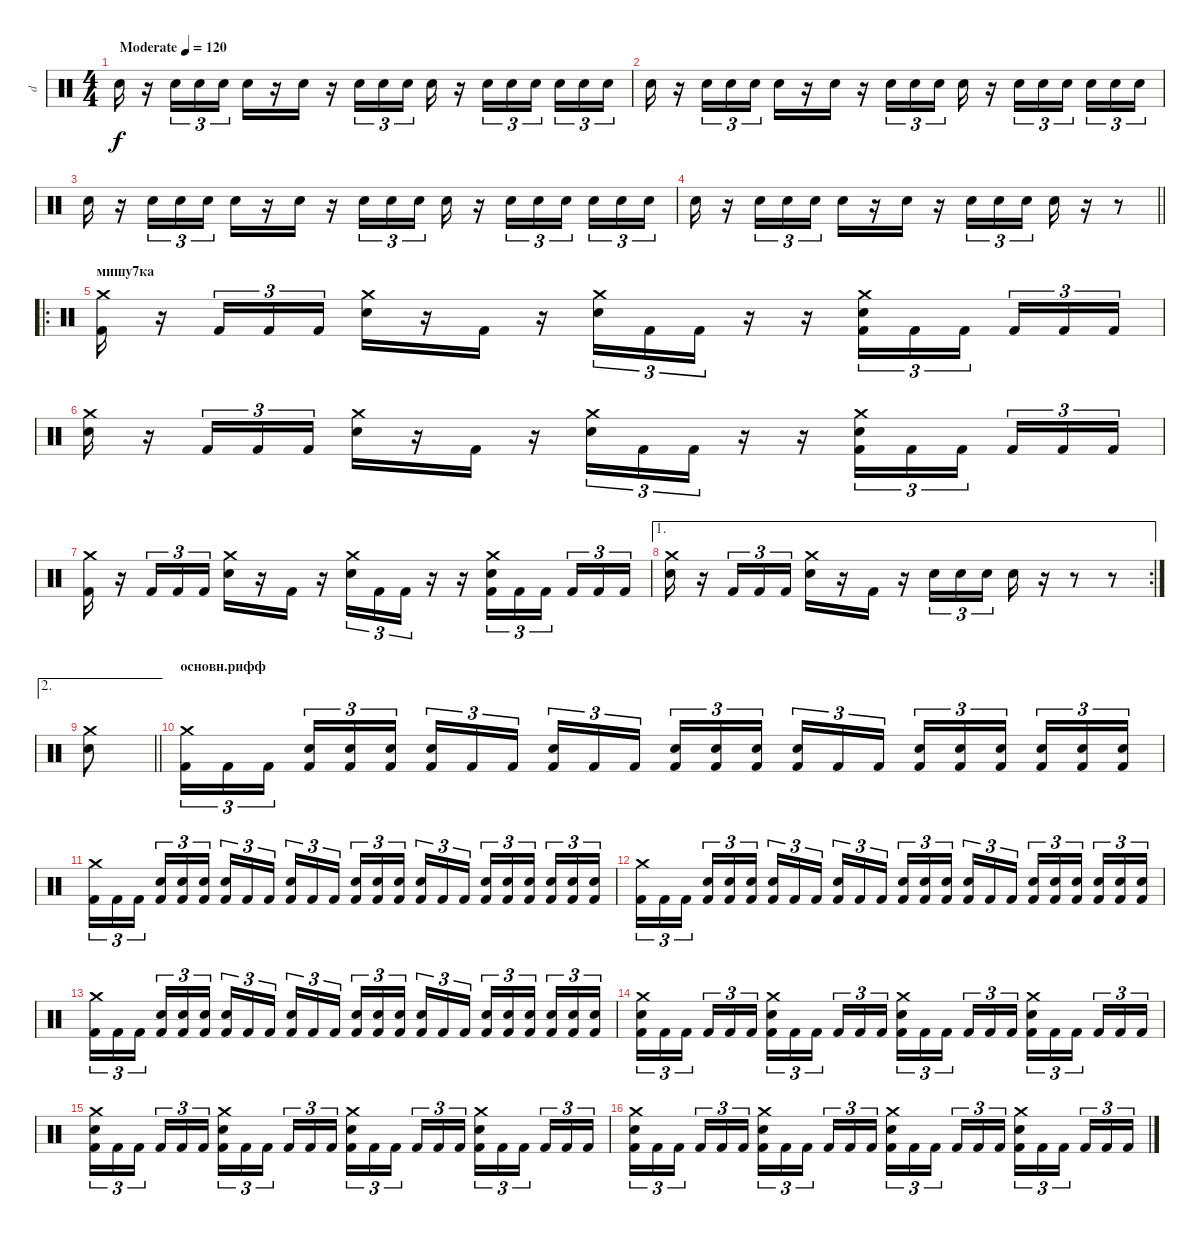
\track ("d" "d") {instrument percussion}
\staff {score}
\articulation defaults
\ts (4 4)
\tempo (120 "Moderate")
\clef neutral
\ks c "Electric Snare (hit)".16{dy f volume 2}
r.16{volume 11} "Electric Snare (hit)".16{tu (3 2)} "Electric Snare (hit)".16{tu (3 2)} "Electric Snare (hit)".16{tu (3 2)} "Electric Snare (hit)".16 r.16 "Electric Snare (hit)".16 r.16 "Electric Snare (hit)".16{tu (3 2)} "Electric Snare (hit)".16{tu (3 2)} "Electric Snare (hit)".16{tu (3 2) beam splitsecondary} "Electric Snare (hit)".16 r.16 "Electric Snare (hit)".16{tu (3 2)} "Electric Snare (hit)".16{tu (3 2)} "Electric Snare (hit)".16{tu (3 2) beam splitsecondary} "Electric Snare (hit)".16{tu (3 2)} "Electric Snare (hit)".16{tu (3 2)} "Electric Snare (hit)".16{tu (3 2)} |
"Electric Snare (hit)".16 r.16 "Electric Snare (hit)".16{tu (3 2)} "Electric Snare (hit)".16{tu (3 2)} "Electric Snare (hit)".16{tu (3 2)} "Electric Snare (hit)".16 r.16 "Electric Snare (hit)".16 r.16 "Electric Snare (hit)".16{tu (3 2)} "Electric Snare (hit)".16{tu (3 2)} "Electric Snare (hit)".16{tu (3 2) beam splitsecondary} "Electric Snare (hit)".16 r.16 "Electric Snare (hit)".16{tu (3 2)} "Electric Snare (hit)".16{tu (3 2)} "Electric Snare (hit)".16{tu (3 2) beam splitsecondary} "Electric Snare (hit)".16{tu (3 2)} "Electric Snare (hit)".16{tu (3 2)} "Electric Snare (hit)".16{tu (3 2)} |
"Electric Snare (hit)".16 r.16 "Electric Snare (hit)".16{tu (3 2)} "Electric Snare (hit)".16{tu (3 2)} "Electric Snare (hit)".16{tu (3 2)} "Electric Snare (hit)".16 r.16 "Electric Snare (hit)".16 r.16 "Electric Snare (hit)".16{tu (3 2)} "Electric Snare (hit)".16{tu (3 2)} "Electric Snare (hit)".16{tu (3 2) beam splitsecondary} "Electric Snare (hit)".16 r.16 "Electric Snare (hit)".16{tu (3 2)} "Electric Snare (hit)".16{tu (3 2)} "Electric Snare (hit)".16{tu (3 2) beam splitsecondary} "Electric Snare (hit)".16{tu (3 2)} "Electric Snare (hit)".16{tu (3 2)} "Electric Snare (hit)".16{tu (3 2)} |
\barLineRight lightlight "Electric Snare (hit)".16
r.16 "Electric Snare (hit)".16{tu (3 2)} "Electric Snare (hit)".16{tu (3 2)} "Electric Snare (hit)".16{tu (3 2)} "Electric Snare (hit)".16 r.16 "Electric Snare (hit)".16 r.16 "Electric Snare (hit)".16{tu (3 2)} "Electric Snare (hit)".16{tu (3 2)} "Electric Snare (hit)".16{tu (3 2) beam splitsecondary} "Electric Snare (hit)".16 r.16 r.8 |
\ro
\section ("" "мишу7ка")
("Kick (hit) 2" "Crash medium (hit)").16 r.16 "Kick (hit) 2".16{tu (3 2)} "Kick (hit) 2".16{tu (3 2)} "Kick (hit) 2".16{tu (3 2)} ("Electric Snare (hit)" "Crash medium (hit)").16 r.16 "Kick (hit) 2".16 r.16 ("Electric Snare (hit)" "Crash medium (hit)").16{tu (3 2)} "Kick (hit) 2".16{tu (3 2)} "Kick (hit) 2".16{tu (3 2)} r.16 r.16 ("Kick (hit) 2" "Electric Snare (hit)" "Crash medium (hit)").16{tu (3 2)} "Kick (hit) 2".16{tu (3 2)} "Kick (hit) 2".16{tu (3 2) beam splitsecondary} "Kick (hit) 2".16{tu (3 2)} "Kick (hit) 2".16{tu (3 2)} "Kick (hit) 2".16{tu (3 2)} |
("Electric Snare (hit)" "Crash medium (hit)").16 r.16 "Kick (hit) 2".16{tu (3 2)} "Kick (hit) 2".16{tu (3 2)} "Kick (hit) 2".16{tu (3 2)} ("Electric Snare (hit)" "Crash medium (hit)").16 r.16 "Kick (hit) 2".16 r.16 ("Electric Snare (hit)" "Crash medium (hit)").16{tu (3 2)} "Kick (hit) 2".16{tu (3 2)} "Kick (hit) 2".16{tu (3 2)} r.16 r.16 ("Kick (hit) 2" "Electric Snare (hit)" "Crash medium (hit)").16{tu (3 2)} "Kick (hit) 2".16{tu (3 2)} "Kick (hit) 2".16{tu (3 2) beam splitsecondary} "Kick (hit) 2".16{tu (3 2)} "Kick (hit) 2".16{tu (3 2)} "Kick (hit) 2".16{tu (3 2)} |
("Kick (hit) 2" "Crash medium (hit)").16 r.16 "Kick (hit) 2".16{tu (3 2)} "Kick (hit) 2".16{tu (3 2)} "Kick (hit) 2".16{tu (3 2)} ("Electric Snare (hit)" "Crash medium (hit)").16 r.16 "Kick (hit) 2".16 r.16 ("Electric Snare (hit)" "Crash medium (hit)").16{tu (3 2)} "Kick (hit) 2".16{tu (3 2)} "Kick (hit) 2".16{tu (3 2)} r.16 r.16 ("Kick (hit) 2" "Electric Snare (hit)" "Crash medium (hit)").16{tu (3 2)} "Kick (hit) 2".16{tu (3 2)} "Kick (hit) 2".16{tu (3 2) beam splitsecondary} "Kick (hit) 2".16{tu (3 2)} "Kick (hit) 2".16{tu (3 2)} "Kick (hit) 2".16{tu (3 2)} |
\ae 1
\rc 2
("Electric Snare (hit)" "Crash medium (hit)").16 r.16 "Kick (hit) 2".16{tu (3 2)} "Kick (hit) 2".16{tu (3 2)} "Kick (hit) 2".16{tu (3 2)} ("Electric Snare (hit)" "Crash medium (hit)").16 r.16 "Kick (hit) 2".16 r.16 "Electric Snare (hit)".16{tu (3 2)} "Electric Snare (hit)".16{tu (3 2)} "Electric Snare (hit)".16{tu (3 2) beam splitsecondary} "Electric Snare (hit)".16 r.16 r.8 r.8 |
\ae 2
\barLineRight lightlight
("Electric Snare (hit)" "Crash medium (hit)").8 |
\section ("" "основн.рифф")
("Crash medium (hit)" "Kick (hit) 2").16{tu (3 2)} "Kick (hit) 2".16{tu (3 2)} "Kick (hit) 2".16{tu (3 2) beam splitsecondary} ("Electric Snare (hit)" "Kick (hit) 2").16{tu (3 2)} ("Electric Snare (hit)" "Kick (hit) 2").16{tu (3 2)} ("Electric Snare (hit)" "Kick (hit) 2").16{tu (3 2)} ("Electric Snare (hit)" "Kick (hit) 2").16{tu (3 2)} "Kick (hit) 2".16{tu (3 2)} "Kick (hit) 2".16{tu (3 2) beam splitsecondary} ("Electric Snare (hit)" "Kick (hit) 2").16{tu (3 2)} "Kick (hit) 2".16{tu (3 2)} "Kick (hit) 2".16{tu (3 2)} ("Electric Snare (hit)" "Kick (hit) 2").16{tu (3 2)} ("Electric Snare (hit)" "Kick (hit) 2").16{tu (3 2)} ("Electric Snare (hit)" "Kick (hit) 2").16{tu (3 2) beam splitsecondary} ("Electric Snare (hit)" "Kick (hit) 2").16{tu (3 2)} "Kick (hit) 2".16{tu (3 2)} "Kick (hit) 2".16{tu (3 2)} ("Electric Snare (hit)" "Kick (hit) 2").16{tu (3 2)} ("Electric Snare (hit)" "Kick (hit) 2").16{tu (3 2)} ("Electric Snare (hit)" "Kick (hit) 2").16{tu (3 2) beam splitsecondary} ("Electric Snare (hit)" "Kick (hit) 2").16{tu (3 2)} ("Electric Snare (hit)" "Kick (hit) 2").16{tu (3 2)} ("Electric Snare (hit)" "Kick (hit) 2").16{tu (3 2)} |
("Crash medium (hit)" "Kick (hit) 2").16{tu (3 2)} "Kick (hit) 2".16{tu (3 2)} "Kick (hit) 2".16{tu (3 2) beam splitsecondary} ("Electric Snare (hit)" "Kick (hit) 2").16{tu (3 2)} ("Electric Snare (hit)" "Kick (hit) 2").16{tu (3 2)} ("Electric Snare (hit)" "Kick (hit) 2").16{tu (3 2)} ("Electric Snare (hit)" "Kick (hit) 2").16{tu (3 2)} "Kick (hit) 2".16{tu (3 2)} "Kick (hit) 2".16{tu (3 2) beam splitsecondary} ("Electric Snare (hit)" "Kick (hit) 2").16{tu (3 2)} "Kick (hit) 2".16{tu (3 2)} "Kick (hit) 2".16{tu (3 2)} ("Electric Snare (hit)" "Kick (hit) 2").16{tu (3 2)} ("Electric Snare (hit)" "Kick (hit) 2").16{tu (3 2)} ("Electric Snare (hit)" "Kick (hit) 2").16{tu (3 2) beam splitsecondary} ("Electric Snare (hit)" "Kick (hit) 2").16{tu (3 2)} "Kick (hit) 2".16{tu (3 2)} "Kick (hit) 2".16{tu (3 2)} ("Electric Snare (hit)" "Kick (hit) 2").16{tu (3 2)} ("Electric Snare (hit)" "Kick (hit) 2").16{tu (3 2)} ("Electric Snare (hit)" "Kick (hit) 2").16{tu (3 2) beam splitsecondary} ("Electric Snare (hit)" "Kick (hit) 2").16{tu (3 2)} ("Electric Snare (hit)" "Kick (hit) 2").16{tu (3 2)} ("Electric Snare (hit)" "Kick (hit) 2").16{tu (3 2)} |
("Crash medium (hit)" "Kick (hit) 2").16{tu (3 2)} "Kick (hit) 2".16{tu (3 2)} "Kick (hit) 2".16{tu (3 2) beam splitsecondary} ("Electric Snare (hit)" "Kick (hit) 2").16{tu (3 2)} ("Electric Snare (hit)" "Kick (hit) 2").16{tu (3 2)} ("Electric Snare (hit)" "Kick (hit) 2").16{tu (3 2)} ("Electric Snare (hit)" "Kick (hit) 2").16{tu (3 2)} "Kick (hit) 2".16{tu (3 2)} "Kick (hit) 2".16{tu (3 2) beam splitsecondary} ("Electric Snare (hit)" "Kick (hit) 2").16{tu (3 2)} "Kick (hit) 2".16{tu (3 2)} "Kick (hit) 2".16{tu (3 2)} ("Electric Snare (hit)" "Kick (hit) 2").16{tu (3 2)} ("Electric Snare (hit)" "Kick (hit) 2").16{tu (3 2)} ("Electric Snare (hit)" "Kick (hit) 2").16{tu (3 2) beam splitsecondary} ("Electric Snare (hit)" "Kick (hit) 2").16{tu (3 2)} "Kick (hit) 2".16{tu (3 2)} "Kick (hit) 2".16{tu (3 2)} ("Electric Snare (hit)" "Kick (hit) 2").16{tu (3 2)} ("Electric Snare (hit)" "Kick (hit) 2").16{tu (3 2)} ("Electric Snare (hit)" "Kick (hit) 2").16{tu (3 2) beam splitsecondary} ("Electric Snare (hit)" "Kick (hit) 2").16{tu (3 2)} ("Electric Snare (hit)" "Kick (hit) 2").16{tu (3 2)} ("Electric Snare (hit)" "Kick (hit) 2").16{tu (3 2)} |
("Crash medium (hit)" "Kick (hit) 2").16{tu (3 2)} "Kick (hit) 2".16{tu (3 2)} "Kick (hit) 2".16{tu (3 2) beam splitsecondary} ("Electric Snare (hit)" "Kick (hit) 2").16{tu (3 2)} ("Electric Snare (hit)" "Kick (hit) 2").16{tu (3 2)} ("Electric Snare (hit)" "Kick (hit) 2").16{tu (3 2)} ("Electric Snare (hit)" "Kick (hit) 2").16{tu (3 2)} "Kick (hit) 2".16{tu (3 2)} "Kick (hit) 2".16{tu (3 2) beam splitsecondary} ("Electric Snare (hit)" "Kick (hit) 2").16{tu (3 2)} "Kick (hit) 2".16{tu (3 2)} "Kick (hit) 2".16{tu (3 2)} ("Electric Snare (hit)" "Kick (hit) 2").16{tu (3 2)} ("Electric Snare (hit)" "Kick (hit) 2").16{tu (3 2)} ("Electric Snare (hit)" "Kick (hit) 2").16{tu (3 2) beam splitsecondary} ("Electric Snare (hit)" "Kick (hit) 2").16{tu (3 2)} "Kick (hit) 2".16{tu (3 2)} "Kick (hit) 2".16{tu (3 2)} ("Electric Snare (hit)" "Kick (hit) 2").16{tu (3 2)} ("Electric Snare (hit)" "Kick (hit) 2").16{tu (3 2)} ("Electric Snare (hit)" "Kick (hit) 2").16{tu (3 2) beam splitsecondary} ("Electric Snare (hit)" "Kick (hit) 2").16{tu (3 2)} ("Electric Snare (hit)" "Kick (hit) 2").16{tu (3 2)} ("Electric Snare (hit)" "Kick (hit) 2").16{tu (3 2)} |
("Crash medium (hit)" "Electric Snare (hit)" "Kick (hit) 2").16{tu (3 2)} "Kick (hit) 2".16{tu (3 2)} "Kick (hit) 2".16{tu (3 2) beam splitsecondary} "Kick (hit) 2".16{tu (3 2)} "Kick (hit) 2".16{tu (3 2)} "Kick (hit) 2".16{tu (3 2)} ("Crash medium (hit)" "Electric Snare (hit)" "Kick (hit) 2").16{tu (3 2)} "Kick (hit) 2".16{tu (3 2)} "Kick (hit) 2".16{tu (3 2) beam splitsecondary} "Kick (hit) 2".16{tu (3 2)} "Kick (hit) 2".16{tu (3 2)} "Kick (hit) 2".16{tu (3 2)} ("Crash medium (hit)" "Electric Snare (hit)" "Kick (hit) 2").16{tu (3 2)} "Kick (hit) 2".16{tu (3 2)} "Kick (hit) 2".16{tu (3 2) beam splitsecondary} "Kick (hit) 2".16{tu (3 2)} "Kick (hit) 2".16{tu (3 2)} "Kick (hit) 2".16{tu (3 2)} ("Crash medium (hit)" "Electric Snare (hit)" "Kick (hit) 2").16{tu (3 2)} "Kick (hit) 2".16{tu (3 2)} "Kick (hit) 2".16{tu (3 2) beam splitsecondary} "Kick (hit) 2".16{tu (3 2)} "Kick (hit) 2".16{tu (3 2)} "Kick (hit) 2".16{tu (3 2)} |
("Crash medium (hit)" "Electric Snare (hit)" "Kick (hit) 2").16{tu (3 2)} "Kick (hit) 2".16{tu (3 2)} "Kick (hit) 2".16{tu (3 2) beam splitsecondary} "Kick (hit) 2".16{tu (3 2)} "Kick (hit) 2".16{tu (3 2)} "Kick (hit) 2".16{tu (3 2)} ("Crash medium (hit)" "Electric Snare (hit)" "Kick (hit) 2").16{tu (3 2)} "Kick (hit) 2".16{tu (3 2)} "Kick (hit) 2".16{tu (3 2) beam splitsecondary} "Kick (hit) 2".16{tu (3 2)} "Kick (hit) 2".16{tu (3 2)} "Kick (hit) 2".16{tu (3 2)} ("Crash medium (hit)" "Electric Snare (hit)" "Kick (hit) 2").16{tu (3 2)} "Kick (hit) 2".16{tu (3 2)} "Kick (hit) 2".16{tu (3 2) beam splitsecondary} "Kick (hit) 2".16{tu (3 2)} "Kick (hit) 2".16{tu (3 2)} "Kick (hit) 2".16{tu (3 2)} ("Crash medium (hit)" "Electric Snare (hit)" "Kick (hit) 2").16{tu (3 2)} "Kick (hit) 2".16{tu (3 2)} "Kick (hit) 2".16{tu (3 2) beam splitsecondary} "Kick (hit) 2".16{tu (3 2)} "Kick (hit) 2".16{tu (3 2)} "Kick (hit) 2".16{tu (3 2)} |
("Crash medium (hit)" "Electric Snare (hit)" "Kick (hit) 2").16{tu (3 2)} "Kick (hit) 2".16{tu (3 2)} "Kick (hit) 2".16{tu (3 2) beam splitsecondary} "Kick (hit) 2".16{tu (3 2)} "Kick (hit) 2".16{tu (3 2)} "Kick (hit) 2".16{tu (3 2)} ("Crash medium (hit)" "Electric Snare (hit)" "Kick (hit) 2").16{tu (3 2)} "Kick (hit) 2".16{tu (3 2)} "Kick (hit) 2".16{tu (3 2) beam splitsecondary} "Kick (hit) 2".16{tu (3 2)} "Kick (hit) 2".16{tu (3 2)} "Kick (hit) 2".16{tu (3 2)} ("Crash medium (hit)" "Electric Snare (hit)" "Kick (hit) 2").16{tu (3 2)} "Kick (hit) 2".16{tu (3 2)} "Kick (hit) 2".16{tu (3 2) beam splitsecondary} "Kick (hit) 2".16{tu (3 2)} "Kick (hit) 2".16{tu (3 2)} "Kick (hit) 2".16{tu (3 2)} ("Crash medium (hit)" "Electric Snare (hit)" "Kick (hit) 2").16{tu (3 2)} "Kick (hit) 2".16{tu (3 2)} "Kick (hit) 2".16{tu (3 2) beam splitsecondary} "Kick (hit) 2".16{tu (3 2)} "Kick (hit) 2".16{tu (3 2)} "Kick (hit) 2".16{tu (3 2)}
